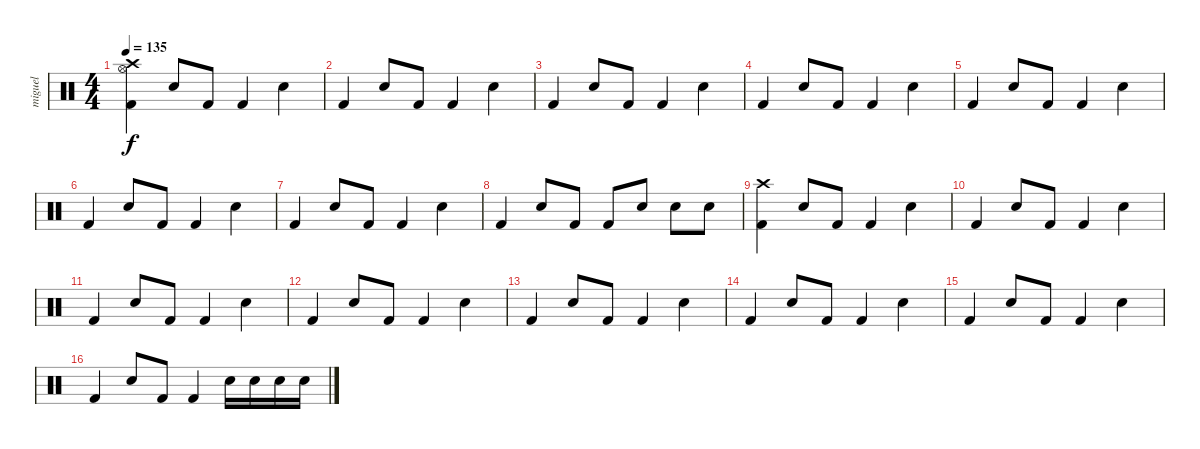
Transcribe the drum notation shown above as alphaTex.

\track ("miguel" "miguel") {instrument percussion}
\staff {score}
\articulation defaults
\ts (4 4)
\tempo 135
\clef neutral
\ks c
("Kick (hit) 2" "Hi-Hat (open)" "Crash high (hit)").4{dy f} "Snare (hit) 2".8 "Kick (hit) 2".8 "Kick (hit) 2".4 "Snare (hit) 2".4 |
"Kick (hit) 2".4 "Snare (hit) 2".8 "Kick (hit) 2".8 "Kick (hit) 2".4 "Snare (hit) 2".4 |
"Kick (hit) 2".4 "Snare (hit) 2".8 "Kick (hit) 2".8 "Kick (hit) 2".4 "Snare (hit) 2".4 |
"Kick (hit) 2".4 "Snare (hit) 2".8 "Kick (hit) 2".8 "Kick (hit) 2".4 "Snare (hit) 2".4 |
"Kick (hit) 2".4 "Snare (hit) 2".8 "Kick (hit) 2".8 "Kick (hit) 2".4 "Snare (hit) 2".4 |
"Kick (hit) 2".4 "Snare (hit) 2".8 "Kick (hit) 2".8 "Kick (hit) 2".4 "Snare (hit) 2".4 |
"Kick (hit) 2".4 "Snare (hit) 2".8 "Kick (hit) 2".8 "Kick (hit) 2".4 "Snare (hit) 2".4 |
"Kick (hit) 2".4 "Snare (hit) 2".8 "Kick (hit) 2".8 "Kick (hit) 2".8 "Snare (hit) 2".8 "Snare (hit) 2".8 "Snare (hit) 2".8 |
("Kick (hit) 2" "Crash high (hit)").4 "Snare (hit) 2".8 "Kick (hit) 2".8 "Kick (hit) 2".4 "Snare (hit) 2".4 |
"Kick (hit) 2".4 "Snare (hit) 2".8 "Kick (hit) 2".8 "Kick (hit) 2".4 "Snare (hit) 2".4 |
"Kick (hit) 2".4 "Snare (hit) 2".8 "Kick (hit) 2".8 "Kick (hit) 2".4 "Snare (hit) 2".4 |
"Kick (hit) 2".4 "Snare (hit) 2".8 "Kick (hit) 2".8 "Kick (hit) 2".4 "Snare (hit) 2".4 |
"Kick (hit) 2".4 "Snare (hit) 2".8 "Kick (hit) 2".8 "Kick (hit) 2".4 "Snare (hit) 2".4 |
"Kick (hit) 2".4 "Snare (hit) 2".8 "Kick (hit) 2".8 "Kick (hit) 2".4 "Snare (hit) 2".4 |
"Kick (hit) 2".4 "Snare (hit) 2".8 "Kick (hit) 2".8 "Kick (hit) 2".4 "Snare (hit) 2".4 |
"Kick (hit) 2".4 "Snare (hit) 2".8 "Kick (hit) 2".8 "Kick (hit) 2".4 "Snare (hit) 2".16 "Snare (hit) 2".16 "Snare (hit) 2".16 "Snare (hit) 2".16
